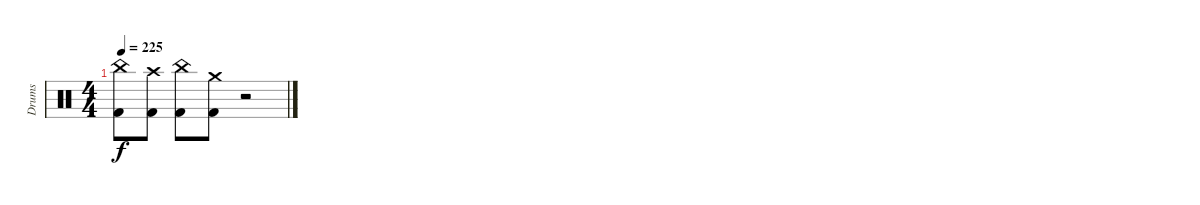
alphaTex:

\track ("Drums" "Drums") {instrument percussion}
\staff {score}
\articulation defaults
\ts (4 4)
\tempo 225
\clef neutral
\ks c
("China (hit)" "Kick (hit) 2").8{dy f} ("Crash high (hit)" "Kick (hit) 2").8 ("China (hit)" "Kick (hit) 2").8 ("Crash medium (hit)" "Kick (hit) 2").8 r.2
